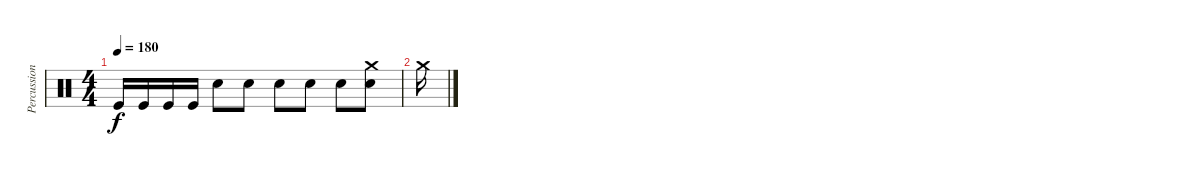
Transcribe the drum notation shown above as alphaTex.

\track ("Percussion" "Percussion") {instrument percussion}
\staff {score}
\articulation defaults
\ts (4 4)
\tempo 180
\clef neutral
\ks c "Kick (hit)".16{dy f} "Kick (hit)".16 "Kick (hit)".16 "Kick (hit)".16 "Electric Snare (hit)".8 "Electric Snare (hit)".8 "Electric Snare (hit)".8 "Electric Snare (hit)".8 "Electric Snare (hit)".8
("Electric Snare (hit)" "Crash medium (hit)").8 |
"Crash medium (hit)".16
